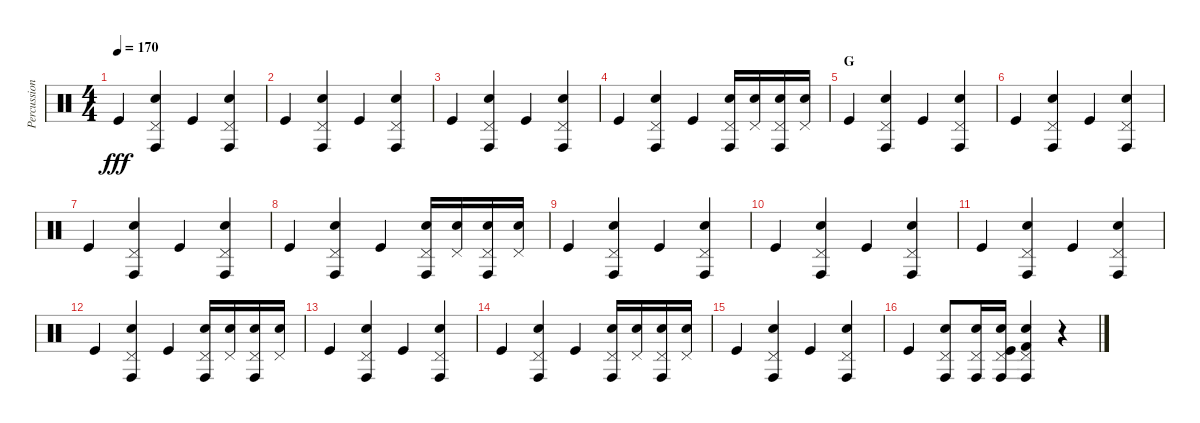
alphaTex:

\track ("Percussion" "Percussion") {instrument percussion}
\staff {score}
\articulation defaults
\ts (4 4)
\tempo 170
\clef neutral
\ks c "Kick (hit)".4{dy fff}
("Pedal Hi-Hat (hit)" "Conga high (hit)" "Electric Snare (hit)").4 "Kick (hit)".4 ("Pedal Hi-Hat (hit)" "Conga high (hit)" "Electric Snare (hit)").4 |
"Kick (hit)".4 ("Pedal Hi-Hat (hit)" "Conga high (hit)" "Electric Snare (hit)").4 "Kick (hit)".4 ("Pedal Hi-Hat (hit)" "Conga high (hit)" "Electric Snare (hit)").4 |
"Kick (hit)".4 ("Pedal Hi-Hat (hit)" "Conga high (hit)" "Electric Snare (hit)").4 "Kick (hit)".4 ("Pedal Hi-Hat (hit)" "Conga high (hit)" "Electric Snare (hit)").4 |
"Kick (hit)".4 ("Pedal Hi-Hat (hit)" "Conga high (hit)" "Electric Snare (hit)").4 "Kick (hit)".4 ("Pedal Hi-Hat (hit)" "Conga high (hit)" "Electric Snare (hit)").16 ("Pedal Hi-Hat (hit)" "Electric Snare (hit)").16 ("Pedal Hi-Hat (hit)" "Conga high (hit)" "Electric Snare (hit)").16 ("Pedal Hi-Hat (hit)" "Electric Snare (hit)").16 |
\section ("" "G")
"Kick (hit)".4 ("Pedal Hi-Hat (hit)" "Conga high (hit)" "Electric Snare (hit)").4 "Kick (hit)".4 ("Pedal Hi-Hat (hit)" "Conga high (hit)" "Electric Snare (hit)").4 |
"Kick (hit)".4 ("Pedal Hi-Hat (hit)" "Conga high (hit)" "Electric Snare (hit)").4 "Kick (hit)".4 ("Pedal Hi-Hat (hit)" "Conga high (hit)" "Electric Snare (hit)").4 |
"Kick (hit)".4 ("Pedal Hi-Hat (hit)" "Conga high (hit)" "Electric Snare (hit)").4 "Kick (hit)".4 ("Pedal Hi-Hat (hit)" "Conga high (hit)" "Electric Snare (hit)").4 |
"Kick (hit)".4 ("Pedal Hi-Hat (hit)" "Conga high (hit)" "Electric Snare (hit)").4 "Kick (hit)".4 ("Pedal Hi-Hat (hit)" "Conga high (hit)" "Electric Snare (hit)").16 ("Pedal Hi-Hat (hit)" "Electric Snare (hit)").16 ("Pedal Hi-Hat (hit)" "Conga high (hit)" "Electric Snare (hit)").16 ("Pedal Hi-Hat (hit)" "Electric Snare (hit)").16 |
"Kick (hit)".4 ("Pedal Hi-Hat (hit)" "Conga high (hit)" "Electric Snare (hit)").4 "Kick (hit)".4 ("Pedal Hi-Hat (hit)" "Conga high (hit)" "Electric Snare (hit)").4 |
"Kick (hit)".4 ("Pedal Hi-Hat (hit)" "Conga high (hit)" "Electric Snare (hit)").4 "Kick (hit)".4 ("Pedal Hi-Hat (hit)" "Conga high (hit)" "Electric Snare (hit)").4 |
"Kick (hit)".4 ("Pedal Hi-Hat (hit)" "Conga high (hit)" "Electric Snare (hit)").4 "Kick (hit)".4 ("Pedal Hi-Hat (hit)" "Conga high (hit)" "Electric Snare (hit)").4 |
"Kick (hit)".4 ("Pedal Hi-Hat (hit)" "Conga high (hit)" "Electric Snare (hit)").4 "Kick (hit)".4 ("Pedal Hi-Hat (hit)" "Conga high (hit)" "Electric Snare (hit)").16 ("Pedal Hi-Hat (hit)" "Electric Snare (hit)").16 ("Pedal Hi-Hat (hit)" "Conga high (hit)" "Electric Snare (hit)").16 ("Pedal Hi-Hat (hit)" "Electric Snare (hit)").16 |
"Kick (hit)".4 ("Pedal Hi-Hat (hit)" "Conga high (hit)" "Electric Snare (hit)").4 "Kick (hit)".4 ("Pedal Hi-Hat (hit)" "Conga high (hit)" "Electric Snare (hit)").4 |
"Kick (hit)".4 ("Pedal Hi-Hat (hit)" "Conga high (hit)" "Electric Snare (hit)").4 "Kick (hit)".4 ("Pedal Hi-Hat (hit)" "Conga high (hit)" "Electric Snare (hit)").16 ("Pedal Hi-Hat (hit)" "Electric Snare (hit)").16 ("Pedal Hi-Hat (hit)" "Conga high (hit)" "Electric Snare (hit)").16 ("Pedal Hi-Hat (hit)" "Electric Snare (hit)").16 |
"Kick (hit)".4 ("Pedal Hi-Hat (hit)" "Conga high (hit)" "Electric Snare (hit)").4 "Kick (hit)".4 ("Pedal Hi-Hat (hit)" "Conga high (hit)" "Electric Snare (hit)").4 |
"Kick (hit)".4 ("Pedal Hi-Hat (hit)" "Conga high (hit)" "Electric Snare (hit)").8 ("Pedal Hi-Hat (hit)" "Conga high (hit)" "Electric Snare (hit)").16 ("Pedal Hi-Hat (hit)" "Conga high (hit)" "Electric Snare (hit)" "Kick (hit)").16 ("Pedal Hi-Hat (hit)" "Conga high (hit)" "Electric Snare (hit)" "Kick (hit) 2").4 r.4
